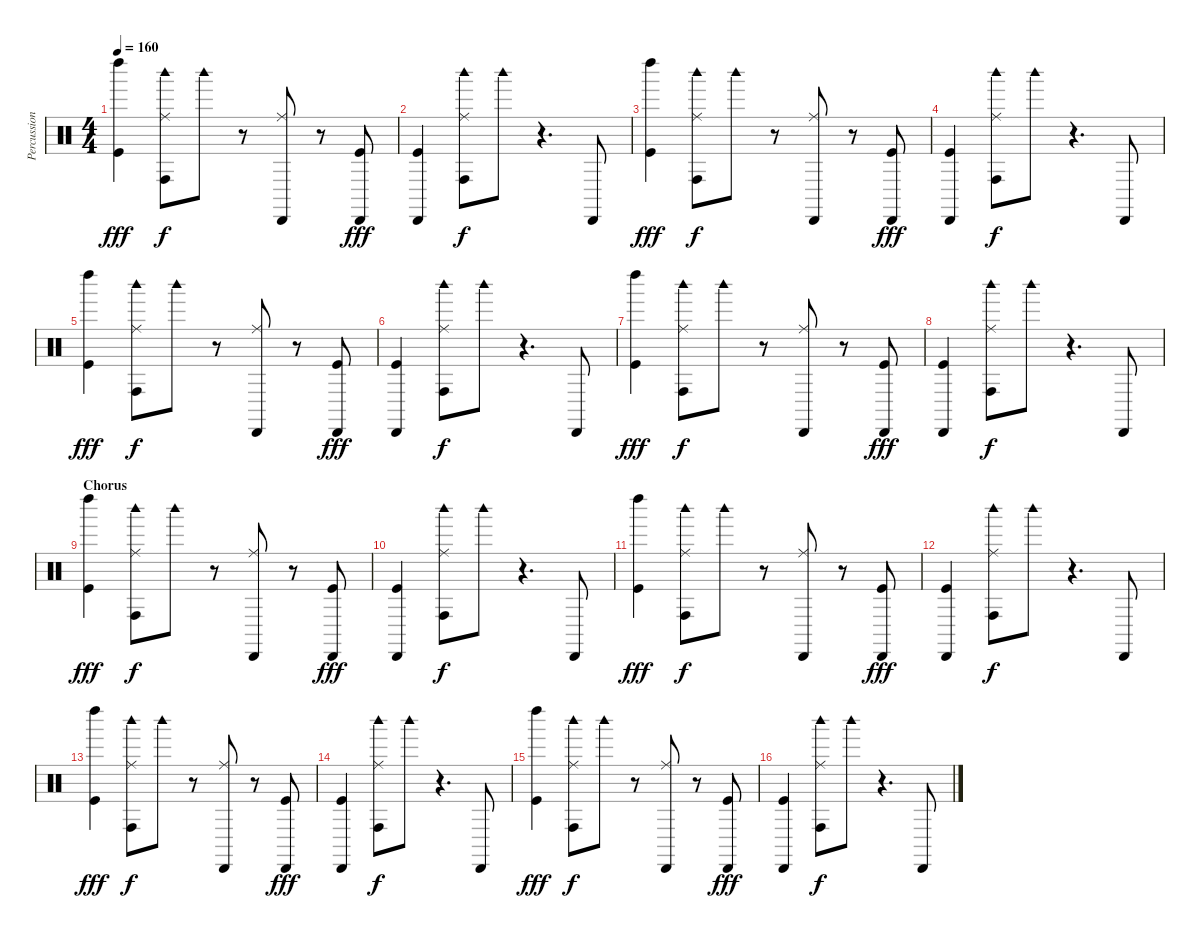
\track ("Percussion" "Percussion") {instrument percussion}
\staff {score}
\articulation defaults
\ts (4 4)
\tempo 160
\clef neutral
\ks c
("Left Maraca (hit)" "Kick (hit)").4{dy fff} ("Conga high (hit)" "Ride (middle)" "Woodblock high (hit)").8{dy f} "Woodblock high (hit)".8 r.8 ("Cabasa (hit)" "Ride (middle)").8 r.8 ("Cabasa (hit)" "Kick (hit)").8{dy fff} |
("Cabasa (hit)" "Kick (hit)").4 ("Conga high (hit)" "Ride (middle)" "Woodblock high (hit)").8{dy f} "Woodblock high (hit)".8 r.4{d} "Cabasa (hit)".8 |
("Left Maraca (hit)" "Kick (hit)").4{dy fff} ("Conga high (hit)" "Ride (middle)" "Woodblock high (hit)").8{dy f} "Woodblock high (hit)".8 r.8 ("Cabasa (hit)" "Ride (middle)").8 r.8 ("Cabasa (hit)" "Kick (hit)").8{dy fff} |
("Cabasa (hit)" "Kick (hit)").4 ("Conga high (hit)" "Ride (middle)" "Woodblock high (hit)").8{dy f} "Woodblock high (hit)".8 r.4{d} "Cabasa (hit)".8 |
("Left Maraca (hit)" "Kick (hit)").4{dy fff} ("Conga high (hit)" "Ride (middle)" "Woodblock high (hit)").8{dy f} "Woodblock high (hit)".8 r.8 ("Cabasa (hit)" "Ride (middle)").8 r.8 ("Cabasa (hit)" "Kick (hit)").8{dy fff} |
("Cabasa (hit)" "Kick (hit)").4 ("Conga high (hit)" "Ride (middle)" "Woodblock high (hit)").8{dy f} "Woodblock high (hit)".8 r.4{d} "Cabasa (hit)".8 |
("Left Maraca (hit)" "Kick (hit)").4{dy fff} ("Conga high (hit)" "Ride (middle)" "Woodblock high (hit)").8{dy f} "Woodblock high (hit)".8 r.8 ("Cabasa (hit)" "Ride (middle)").8 r.8 ("Cabasa (hit)" "Kick (hit)").8{dy fff} |
("Cabasa (hit)" "Kick (hit)").4 ("Conga high (hit)" "Ride (middle)" "Woodblock high (hit)").8{dy f} "Woodblock high (hit)".8 r.4{d} "Cabasa (hit)".8 |
\section ("" "Chorus")
("Left Maraca (hit)" "Kick (hit)").4{dy fff} ("Conga high (hit)" "Ride (middle)" "Woodblock high (hit)").8{dy f} "Woodblock high (hit)".8 r.8 ("Cabasa (hit)" "Ride (middle)").8 r.8 ("Cabasa (hit)" "Kick (hit)").8{dy fff} |
("Cabasa (hit)" "Kick (hit)").4 ("Conga high (hit)" "Ride (middle)" "Woodblock high (hit)").8{dy f} "Woodblock high (hit)".8 r.4{d} "Cabasa (hit)".8 |
("Left Maraca (hit)" "Kick (hit)").4{dy fff} ("Conga high (hit)" "Ride (middle)" "Woodblock high (hit)").8{dy f} "Woodblock high (hit)".8 r.8 ("Cabasa (hit)" "Ride (middle)").8 r.8 ("Cabasa (hit)" "Kick (hit)").8{dy fff} |
("Cabasa (hit)" "Kick (hit)").4 ("Conga high (hit)" "Ride (middle)" "Woodblock high (hit)").8{dy f} "Woodblock high (hit)".8 r.4{d} "Cabasa (hit)".8 |
("Left Maraca (hit)" "Kick (hit)").4{dy fff} ("Conga high (hit)" "Ride (middle)" "Woodblock high (hit)").8{dy f} "Woodblock high (hit)".8 r.8 ("Cabasa (hit)" "Ride (middle)").8 r.8 ("Cabasa (hit)" "Kick (hit)").8{dy fff} |
("Cabasa (hit)" "Kick (hit)").4 ("Conga high (hit)" "Ride (middle)" "Woodblock high (hit)").8{dy f} "Woodblock high (hit)".8 r.4{d} "Cabasa (hit)".8 |
("Left Maraca (hit)" "Kick (hit)").4{dy fff} ("Conga high (hit)" "Ride (middle)" "Woodblock high (hit)").8{dy f} "Woodblock high (hit)".8 r.8 ("Cabasa (hit)" "Ride (middle)").8 r.8 ("Cabasa (hit)" "Kick (hit)").8{dy fff} |
("Cabasa (hit)" "Kick (hit)").4 ("Conga high (hit)" "Ride (middle)" "Woodblock high (hit)").8{dy f} "Woodblock high (hit)".8 r.4{d} "Cabasa (hit)".8
